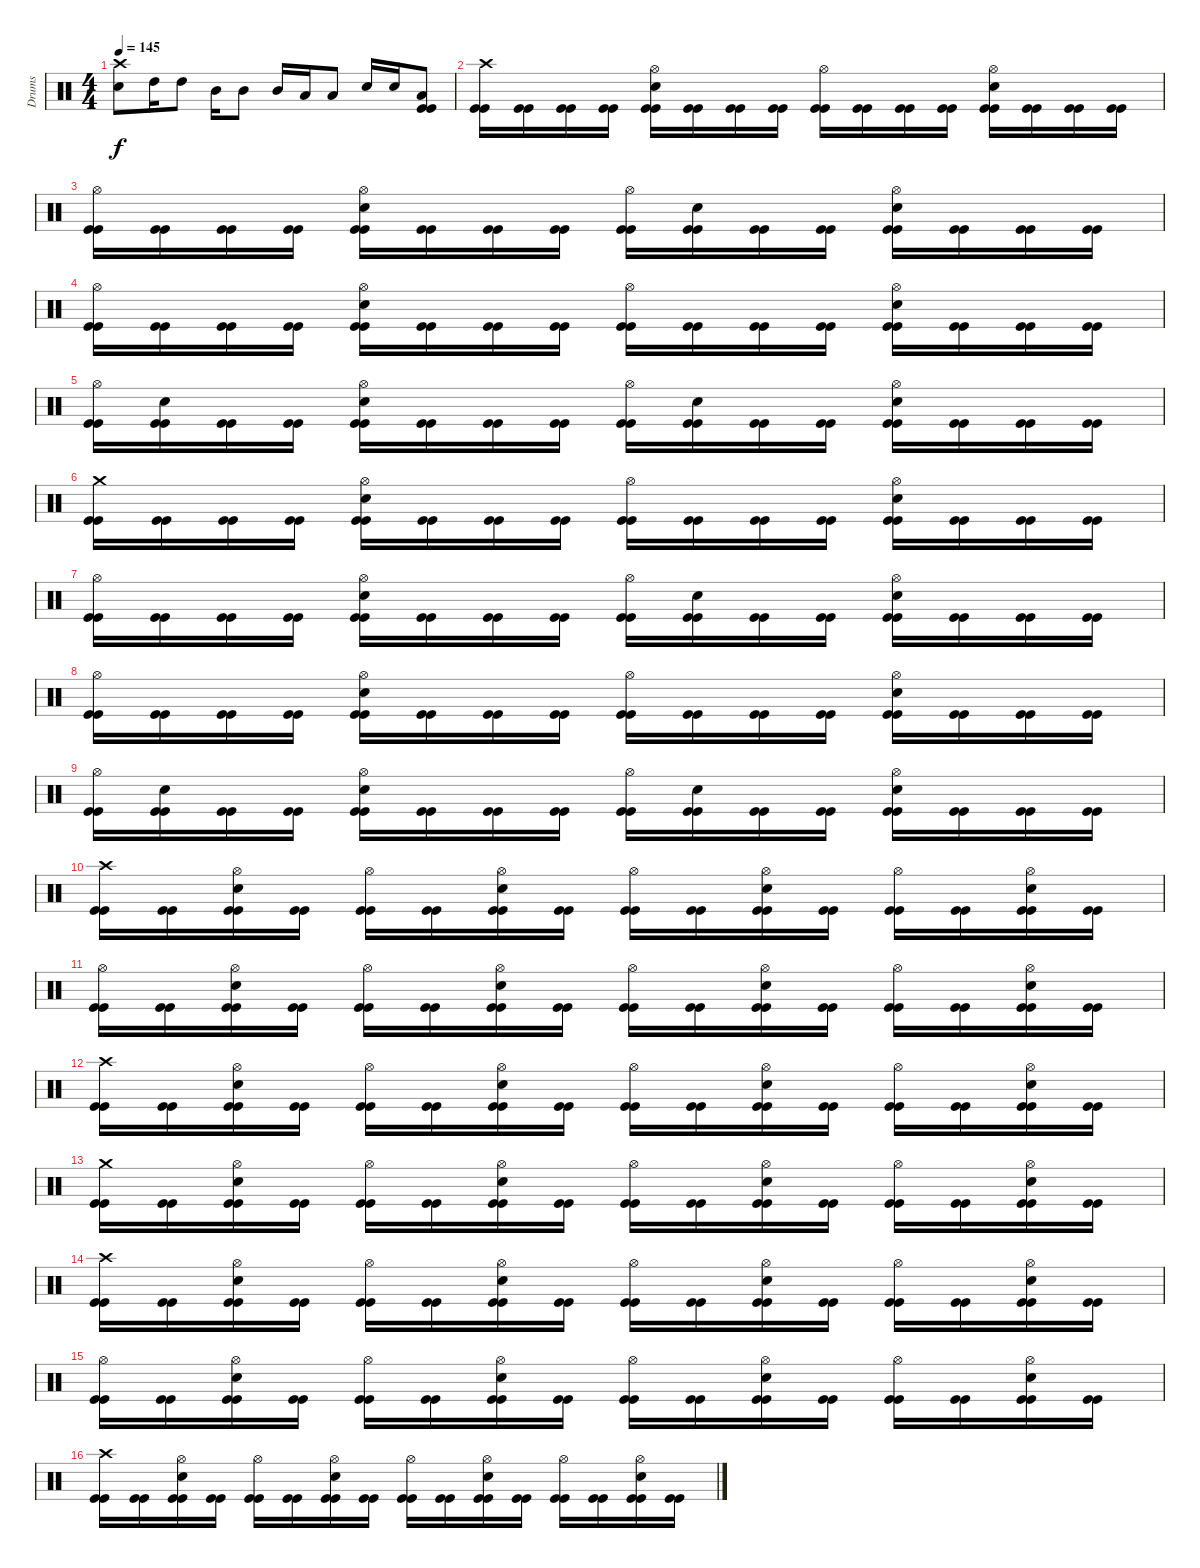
\track ("Drums" "Drums") {instrument percussion}
\staff {score}
\articulation defaults
\ts (4 4)
\tempo 145
\clef neutral
\ks c
("Snare (hit) 2" "Crash high (hit)").8{dy f} "High Tom (hit)".16 "High Tom (hit)".8 "Mid Tom (hit)".16 "Mid Tom (hit)".8 "Mid Tom (hit)".16 "Low Tom (hit)".16 "Low Tom (hit)".8 "Snare (hit) 2".16 "Snare (hit) 2".16 ("Kick (hit)" "Kick (hit)" "Low Floor Tom (hit)").8 |
("Kick (hit)" "Kick (hit)" "Crash high (hit)").16 ("Kick (hit)" "Kick (hit)").16 ("Kick (hit)" "Kick (hit)").16 ("Kick (hit)" "Kick (hit)").16 ("Kick (hit)" "Kick (hit)" "Snare (hit) 2" "Hi-Hat (open)").16 ("Kick (hit)" "Kick (hit)").16 ("Kick (hit)" "Kick (hit)").16 ("Kick (hit)" "Kick (hit)").16 ("Kick (hit)" "Kick (hit)" "Hi-Hat (open)").16 ("Kick (hit)" "Kick (hit)").16 ("Kick (hit)" "Kick (hit)").16 ("Kick (hit)" "Kick (hit)").16 ("Kick (hit)" "Kick (hit)" "Snare (hit) 2" "Hi-Hat (open)").16 ("Kick (hit)" "Kick (hit)").16 ("Kick (hit)" "Kick (hit)").16 ("Kick (hit)" "Kick (hit)").16 |
("Kick (hit)" "Kick (hit)" "Hi-Hat (open)").16 ("Kick (hit)" "Kick (hit)").16 ("Kick (hit)" "Kick (hit)").16 ("Kick (hit)" "Kick (hit)").16 ("Kick (hit)" "Kick (hit)" "Snare (hit) 2" "Hi-Hat (open)").16 ("Kick (hit)" "Kick (hit)").16 ("Kick (hit)" "Kick (hit)").16 ("Kick (hit)" "Kick (hit)").16 ("Kick (hit)" "Kick (hit)" "Hi-Hat (open)").16 ("Kick (hit)" "Kick (hit)" "Snare (hit) 2").16 ("Kick (hit)" "Kick (hit)").16 ("Kick (hit)" "Kick (hit)").16 ("Kick (hit)" "Kick (hit)" "Snare (hit) 2" "Hi-Hat (open)").16 ("Kick (hit)" "Kick (hit)").16 ("Kick (hit)" "Kick (hit)").16 ("Kick (hit)" "Kick (hit)").16 |
("Kick (hit)" "Kick (hit)" "Hi-Hat (open)").16 ("Kick (hit)" "Kick (hit)").16 ("Kick (hit)" "Kick (hit)").16 ("Kick (hit)" "Kick (hit)").16 ("Kick (hit)" "Kick (hit)" "Snare (hit) 2" "Hi-Hat (open)").16 ("Kick (hit)" "Kick (hit)").16 ("Kick (hit)" "Kick (hit)").16 ("Kick (hit)" "Kick (hit)").16 ("Kick (hit)" "Kick (hit)" "Hi-Hat (open)").16 ("Kick (hit)" "Kick (hit)").16 ("Kick (hit)" "Kick (hit)").16 ("Kick (hit)" "Kick (hit)").16 ("Kick (hit)" "Kick (hit)" "Snare (hit) 2" "Hi-Hat (open)").16 ("Kick (hit)" "Kick (hit)").16 ("Kick (hit)" "Kick (hit)").16 ("Kick (hit)" "Kick (hit)").16 |
("Kick (hit)" "Kick (hit)" "Hi-Hat (open)").16 ("Kick (hit)" "Kick (hit)" "Snare (hit) 2").16 ("Kick (hit)" "Kick (hit)").16 ("Kick (hit)" "Kick (hit)").16 ("Kick (hit)" "Kick (hit)" "Snare (hit) 2" "Hi-Hat (open)").16 ("Kick (hit)" "Kick (hit)").16 ("Kick (hit)" "Kick (hit)").16 ("Kick (hit)" "Kick (hit)").16 ("Kick (hit)" "Kick (hit)" "Hi-Hat (open)").16 ("Kick (hit)" "Kick (hit)" "Snare (hit) 2").16 ("Kick (hit)" "Kick (hit)").16 ("Kick (hit)" "Kick (hit)").16 ("Kick (hit)" "Kick (hit)" "Snare (hit) 2" "Hi-Hat (open)").16 ("Kick (hit)" "Kick (hit)").16 ("Kick (hit)" "Kick (hit)").16 ("Kick (hit)" "Kick (hit)").16 |
("Kick (hit)" "Kick (hit)" "Crash medium (hit)").16 ("Kick (hit)" "Kick (hit)").16 ("Kick (hit)" "Kick (hit)").16 ("Kick (hit)" "Kick (hit)").16 ("Kick (hit)" "Kick (hit)" "Snare (hit) 2" "Hi-Hat (open)").16 ("Kick (hit)" "Kick (hit)").16 ("Kick (hit)" "Kick (hit)").16 ("Kick (hit)" "Kick (hit)").16 ("Kick (hit)" "Kick (hit)" "Hi-Hat (open)").16 ("Kick (hit)" "Kick (hit)").16 ("Kick (hit)" "Kick (hit)").16 ("Kick (hit)" "Kick (hit)").16 ("Kick (hit)" "Kick (hit)" "Snare (hit) 2" "Hi-Hat (open)").16 ("Kick (hit)" "Kick (hit)").16 ("Kick (hit)" "Kick (hit)").16 ("Kick (hit)" "Kick (hit)").16 |
("Kick (hit)" "Kick (hit)" "Hi-Hat (open)").16 ("Kick (hit)" "Kick (hit)").16 ("Kick (hit)" "Kick (hit)").16 ("Kick (hit)" "Kick (hit)").16 ("Kick (hit)" "Kick (hit)" "Snare (hit) 2" "Hi-Hat (open)").16 ("Kick (hit)" "Kick (hit)").16 ("Kick (hit)" "Kick (hit)").16 ("Kick (hit)" "Kick (hit)").16 ("Kick (hit)" "Kick (hit)" "Hi-Hat (open)").16 ("Kick (hit)" "Kick (hit)" "Snare (hit) 2").16 ("Kick (hit)" "Kick (hit)").16 ("Kick (hit)" "Kick (hit)").16 ("Kick (hit)" "Kick (hit)" "Snare (hit) 2" "Hi-Hat (open)").16 ("Kick (hit)" "Kick (hit)").16 ("Kick (hit)" "Kick (hit)").16 ("Kick (hit)" "Kick (hit)").16 |
("Kick (hit)" "Kick (hit)" "Hi-Hat (open)").16 ("Kick (hit)" "Kick (hit)").16 ("Kick (hit)" "Kick (hit)").16 ("Kick (hit)" "Kick (hit)").16 ("Kick (hit)" "Kick (hit)" "Snare (hit) 2" "Hi-Hat (open)").16 ("Kick (hit)" "Kick (hit)").16 ("Kick (hit)" "Kick (hit)").16 ("Kick (hit)" "Kick (hit)").16 ("Kick (hit)" "Kick (hit)" "Hi-Hat (open)").16 ("Kick (hit)" "Kick (hit)").16 ("Kick (hit)" "Kick (hit)").16 ("Kick (hit)" "Kick (hit)").16 ("Kick (hit)" "Kick (hit)" "Snare (hit) 2" "Hi-Hat (open)").16 ("Kick (hit)" "Kick (hit)").16 ("Kick (hit)" "Kick (hit)").16 ("Kick (hit)" "Kick (hit)").16 |
("Kick (hit)" "Kick (hit)" "Hi-Hat (open)").16 ("Kick (hit)" "Kick (hit)" "Snare (hit) 2").16 ("Kick (hit)" "Kick (hit)").16 ("Kick (hit)" "Kick (hit)").16 ("Kick (hit)" "Kick (hit)" "Snare (hit) 2" "Hi-Hat (open)").16 ("Kick (hit)" "Kick (hit)").16 ("Kick (hit)" "Kick (hit)").16 ("Kick (hit)" "Kick (hit)").16 ("Kick (hit)" "Kick (hit)" "Hi-Hat (open)").16 ("Kick (hit)" "Kick (hit)" "Snare (hit) 2").16 ("Kick (hit)" "Kick (hit)").16 ("Kick (hit)" "Kick (hit)").16 ("Kick (hit)" "Kick (hit)" "Snare (hit) 2" "Hi-Hat (open)").16 ("Kick (hit)" "Kick (hit)").16 ("Kick (hit)" "Kick (hit)").16 ("Kick (hit)" "Kick (hit)").16 |
("Kick (hit)" "Kick (hit)" "Crash high (hit)").16 ("Kick (hit)" "Kick (hit)").16 ("Kick (hit)" "Kick (hit)" "Snare (hit) 2" "Hi-Hat (open)").16 ("Kick (hit)" "Kick (hit)").16 ("Kick (hit)" "Kick (hit)" "Hi-Hat (open)").16 ("Kick (hit)" "Kick (hit)").16 ("Kick (hit)" "Kick (hit)" "Snare (hit) 2" "Hi-Hat (open)").16 ("Kick (hit)" "Kick (hit)").16 ("Kick (hit)" "Kick (hit)" "Hi-Hat (open)").16 ("Kick (hit)" "Kick (hit)").16 ("Kick (hit)" "Kick (hit)" "Snare (hit) 2" "Hi-Hat (open)").16 ("Kick (hit)" "Kick (hit)").16 ("Kick (hit)" "Kick (hit)" "Hi-Hat (open)").16 ("Kick (hit)" "Kick (hit)").16 ("Kick (hit)" "Kick (hit)" "Snare (hit) 2" "Hi-Hat (open)").16 ("Kick (hit)" "Kick (hit)").16 |
("Kick (hit)" "Kick (hit)" "Hi-Hat (open)").16 ("Kick (hit)" "Kick (hit)").16 ("Kick (hit)" "Kick (hit)" "Snare (hit) 2" "Hi-Hat (open)").16 ("Kick (hit)" "Kick (hit)").16 ("Kick (hit)" "Kick (hit)" "Hi-Hat (open)").16 ("Kick (hit)" "Kick (hit)").16 ("Kick (hit)" "Kick (hit)" "Snare (hit) 2" "Hi-Hat (open)").16 ("Kick (hit)" "Kick (hit)").16 ("Kick (hit)" "Kick (hit)" "Hi-Hat (open)").16 ("Kick (hit)" "Kick (hit)").16 ("Kick (hit)" "Kick (hit)" "Snare (hit) 2" "Hi-Hat (open)").16 ("Kick (hit)" "Kick (hit)").16 ("Kick (hit)" "Kick (hit)" "Hi-Hat (open)").16 ("Kick (hit)" "Kick (hit)").16 ("Kick (hit)" "Kick (hit)" "Snare (hit) 2" "Hi-Hat (open)").16 ("Kick (hit)" "Kick (hit)").16 |
("Kick (hit)" "Kick (hit)" "Crash high (hit)").16 ("Kick (hit)" "Kick (hit)").16 ("Kick (hit)" "Kick (hit)" "Snare (hit) 2" "Hi-Hat (open)").16 ("Kick (hit)" "Kick (hit)").16 ("Kick (hit)" "Kick (hit)" "Hi-Hat (open)").16 ("Kick (hit)" "Kick (hit)").16 ("Kick (hit)" "Kick (hit)" "Snare (hit) 2" "Hi-Hat (open)").16 ("Kick (hit)" "Kick (hit)").16 ("Kick (hit)" "Kick (hit)" "Hi-Hat (open)").16 ("Kick (hit)" "Kick (hit)").16 ("Kick (hit)" "Kick (hit)" "Snare (hit) 2" "Hi-Hat (open)").16 ("Kick (hit)" "Kick (hit)").16 ("Kick (hit)" "Kick (hit)" "Hi-Hat (open)").16 ("Kick (hit)" "Kick (hit)").16 ("Kick (hit)" "Kick (hit)" "Snare (hit) 2" "Hi-Hat (open)").16 ("Kick (hit)" "Kick (hit)").16 |
("Kick (hit)" "Kick (hit)" "Crash medium (hit)").16 ("Kick (hit)" "Kick (hit)").16 ("Kick (hit)" "Kick (hit)" "Snare (hit) 2" "Hi-Hat (open)").16 ("Kick (hit)" "Kick (hit)").16 ("Kick (hit)" "Kick (hit)" "Hi-Hat (open)").16 ("Kick (hit)" "Kick (hit)").16 ("Kick (hit)" "Kick (hit)" "Snare (hit) 2" "Hi-Hat (open)").16 ("Kick (hit)" "Kick (hit)").16 ("Kick (hit)" "Kick (hit)" "Hi-Hat (open)").16 ("Kick (hit)" "Kick (hit)").16 ("Kick (hit)" "Kick (hit)" "Snare (hit) 2" "Hi-Hat (open)").16 ("Kick (hit)" "Kick (hit)").16 ("Kick (hit)" "Kick (hit)" "Hi-Hat (open)").16 ("Kick (hit)" "Kick (hit)").16 ("Kick (hit)" "Kick (hit)" "Snare (hit) 2" "Hi-Hat (open)").16 ("Kick (hit)" "Kick (hit)").16 |
("Kick (hit)" "Kick (hit)" "Crash high (hit)").16 ("Kick (hit)" "Kick (hit)").16 ("Kick (hit)" "Kick (hit)" "Snare (hit) 2" "Hi-Hat (open)").16 ("Kick (hit)" "Kick (hit)").16 ("Kick (hit)" "Kick (hit)" "Hi-Hat (open)").16 ("Kick (hit)" "Kick (hit)").16 ("Kick (hit)" "Kick (hit)" "Snare (hit) 2" "Hi-Hat (open)").16 ("Kick (hit)" "Kick (hit)").16 ("Kick (hit)" "Kick (hit)" "Hi-Hat (open)").16 ("Kick (hit)" "Kick (hit)").16 ("Kick (hit)" "Kick (hit)" "Snare (hit) 2" "Hi-Hat (open)").16 ("Kick (hit)" "Kick (hit)").16 ("Kick (hit)" "Kick (hit)" "Hi-Hat (open)").16 ("Kick (hit)" "Kick (hit)").16 ("Kick (hit)" "Kick (hit)" "Snare (hit) 2" "Hi-Hat (open)").16 ("Kick (hit)" "Kick (hit)").16 |
("Kick (hit)" "Kick (hit)" "Hi-Hat (open)").16 ("Kick (hit)" "Kick (hit)").16 ("Kick (hit)" "Kick (hit)" "Snare (hit) 2" "Hi-Hat (open)").16 ("Kick (hit)" "Kick (hit)").16 ("Kick (hit)" "Kick (hit)" "Hi-Hat (open)").16 ("Kick (hit)" "Kick (hit)").16 ("Kick (hit)" "Kick (hit)" "Snare (hit) 2" "Hi-Hat (open)").16 ("Kick (hit)" "Kick (hit)").16 ("Kick (hit)" "Kick (hit)" "Hi-Hat (open)").16 ("Kick (hit)" "Kick (hit)").16 ("Kick (hit)" "Kick (hit)" "Snare (hit) 2" "Hi-Hat (open)").16 ("Kick (hit)" "Kick (hit)").16 ("Kick (hit)" "Kick (hit)" "Hi-Hat (open)").16 ("Kick (hit)" "Kick (hit)").16 ("Kick (hit)" "Kick (hit)" "Snare (hit) 2" "Hi-Hat (open)").16 ("Kick (hit)" "Kick (hit)").16 |
("Kick (hit)" "Kick (hit)" "Crash high (hit)").16 ("Kick (hit)" "Kick (hit)").16 ("Kick (hit)" "Kick (hit)" "Snare (hit) 2" "Hi-Hat (open)").16 ("Kick (hit)" "Kick (hit)").16 ("Kick (hit)" "Kick (hit)" "Hi-Hat (open)").16 ("Kick (hit)" "Kick (hit)").16 ("Kick (hit)" "Kick (hit)" "Snare (hit) 2" "Hi-Hat (open)").16 ("Kick (hit)" "Kick (hit)").16 ("Kick (hit)" "Kick (hit)" "Hi-Hat (open)").16 ("Kick (hit)" "Kick (hit)").16 ("Kick (hit)" "Kick (hit)" "Snare (hit) 2" "Hi-Hat (open)").16 ("Kick (hit)" "Kick (hit)").16 ("Kick (hit)" "Kick (hit)" "Hi-Hat (open)").16 ("Kick (hit)" "Kick (hit)").16 ("Kick (hit)" "Kick (hit)" "Snare (hit) 2" "Hi-Hat (open)").16 ("Kick (hit)" "Kick (hit)").16
